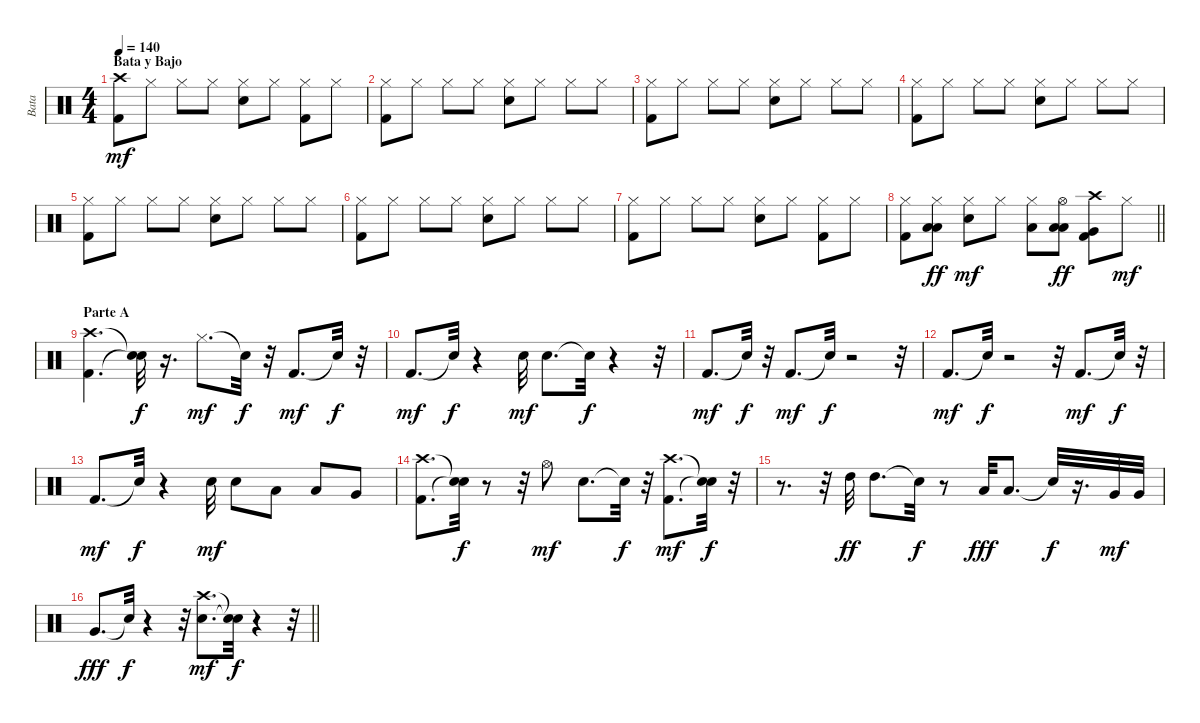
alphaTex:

\track ("Bata" "Bata") {instrument percussion}
\staff {score}
\articulation defaults
\ts (4 4)
\section ("" "Bata y Bajo")
\tempo 140
\clef neutral
\ks c
("Crash high (hit)" "Kick (hit) 2").8{dy mf} "Hi-Hat (closed)".8 "Hi-Hat (closed)".8 "Hi-Hat (closed)".8 ("Hi-Hat (closed)" "Snare (hit) 2").8 "Hi-Hat (closed)".8 ("Kick (hit) 2" "Hi-Hat (closed)").8 "Hi-Hat (closed)".8 |
("Hi-Hat (closed)" "Kick (hit) 2").8 "Hi-Hat (closed)".8 "Hi-Hat (closed)".8 "Hi-Hat (closed)".8 ("Hi-Hat (closed)" "Snare (hit) 2").8 "Hi-Hat (closed)".8 "Hi-Hat (closed)".8 "Hi-Hat (closed)".8 |
("Kick (hit) 2" "Hi-Hat (closed)").8 "Hi-Hat (closed)".8 "Hi-Hat (closed)".8 "Hi-Hat (closed)".8 ("Snare (hit) 2" "Hi-Hat (closed)").8 "Hi-Hat (closed)".8 "Hi-Hat (closed)".8 "Hi-Hat (closed)".8 |
("Hi-Hat (closed)" "Kick (hit) 2").8 "Hi-Hat (closed)".8 "Hi-Hat (closed)".8 "Hi-Hat (closed)".8 ("Hi-Hat (closed)" "Snare (hit) 2").8 "Hi-Hat (closed)".8 "Hi-Hat (closed)".8 "Hi-Hat (closed)".8 |
("Kick (hit) 2" "Hi-Hat (closed)").8 "Hi-Hat (closed)".8 "Hi-Hat (closed)".8 "Hi-Hat (closed)".8 ("Snare (hit) 2" "Hi-Hat (closed)").8 "Hi-Hat (closed)".8 "Hi-Hat (closed)".8 "Hi-Hat (closed)".8 |
("Hi-Hat (closed)" "Kick (hit) 2").8 "Hi-Hat (closed)".8 "Hi-Hat (closed)".8 "Hi-Hat (closed)".8 ("Snare (hit) 2" "Hi-Hat (closed)").8 "Hi-Hat (closed)".8 "Hi-Hat (closed)".8 "Hi-Hat (closed)".8 |
("Kick (hit) 2" "Hi-Hat (closed)").8 "Hi-Hat (closed)".8 "Hi-Hat (closed)".8 "Hi-Hat (closed)".8 ("Snare (hit) 2" "Hi-Hat (closed)").8 "Hi-Hat (closed)".8 ("Kick (hit) 2" "Hi-Hat (closed)").8 "Hi-Hat (closed)".8 |
\barLineRight lightlight
("Hi-Hat (closed)" "Kick (hit) 2").8 ("Low Floor Tom (hit)" "Hi-Hat (closed)" "Low Tom (hit)").8{dy ff} ("Hi-Hat (closed)" "Snare (hit) 2").8{dy mf} "Hi-Hat (closed)".8 ("Hi-Hat (closed)" "Low Tom (hit)").8 ("Hi-Hat (open)" "Low Tom (hit)" "Low Floor Tom (hit)").8{dy ff} ("Crash high (hit)" "Very Low Tom (hit)" "Kick (hit) 2").8 "Hi-Hat (closed)".8{dy mf} |
\section ("" "Parte A")
("Kick (hit) 2" "Crash high (hit)").4{d} ("Snare (hit)"{t} "Snare (hit)"{t}).32{dy f} r.16{d} "Hi-Hat (closed)".8{d dy mf} "Snare (hit)"{t}.32{dy f} r.32 "Kick (hit) 2".8{d dy mf} "Snare (hit)"{t}.32{dy f} r.32 |
"Kick (hit) 2".8{d dy mf} "Snare (hit)"{t}.32{dy f} r.4 "Snare (hit) 2".32{dy mf} "Snare (hit) 2".8{d} "Snare (hit)"{t}.32{dy f} r.4 r.32 |
"Kick (hit) 2".8{d dy mf} "Snare (hit)"{t}.32{dy f} r.32 "Kick (hit) 2".8{d dy mf} "Snare (hit)"{t}.32{dy f} r.2 r.32 |
"Kick (hit) 2".8{d dy mf} "Snare (hit)"{t}.32{dy f} r.2 r.32 "Kick (hit) 2".8{d dy mf} "Snare (hit)"{t}.32{dy f} r.32 |
"Kick (hit) 2".8{d dy mf} "Snare (hit)"{t}.32{dy f} r.4 "Snare (hit) 2".32{dy mf} "Snare (hit) 2".8 "Low Tom (hit)".8 "Low Tom (hit)".8 "Very Low Tom (hit)".8 |
("Kick (hit) 2" "Crash high (hit)").8{d} ("Snare (hit)"{t} "Snare (hit)"{t}).32{dy f} r.8 r.32 "Hi-Hat (open)".8{dy mf} "Snare (hit) 2".8{d} "Snare (hit)"{t}.32{dy f} r.32 ("Kick (hit) 2" "Crash high (hit)").8{d dy mf} ("Snare (hit)"{t} "Snare (hit)"{t}).32{dy f} r.32 |
r.8{d} r.32 "High Tom (hit)".32{dy ff} "High Tom (hit)".8{d} "Snare (hit)"{t}.32{dy f} r.8 "Low Tom (hit)".32{dy fff} "Low Tom (hit)".8{d} "Snare (hit)"{t}.32{dy f} r.16{d} "Very Low Tom (hit)".32{dy mf} "Very Low Tom (hit)".32 |
\barLineRight lightlight "Very Low Tom (hit)".8{d dy fff} "Snare (hit)"{t}.32{dy f}
r.4 r.32 ("Snare (hit) 2" "Crash high (hit)").8{d dy mf} ("Snare (hit)"{t} "Snare (hit)"{t}).32{dy f} r.4 r.32
